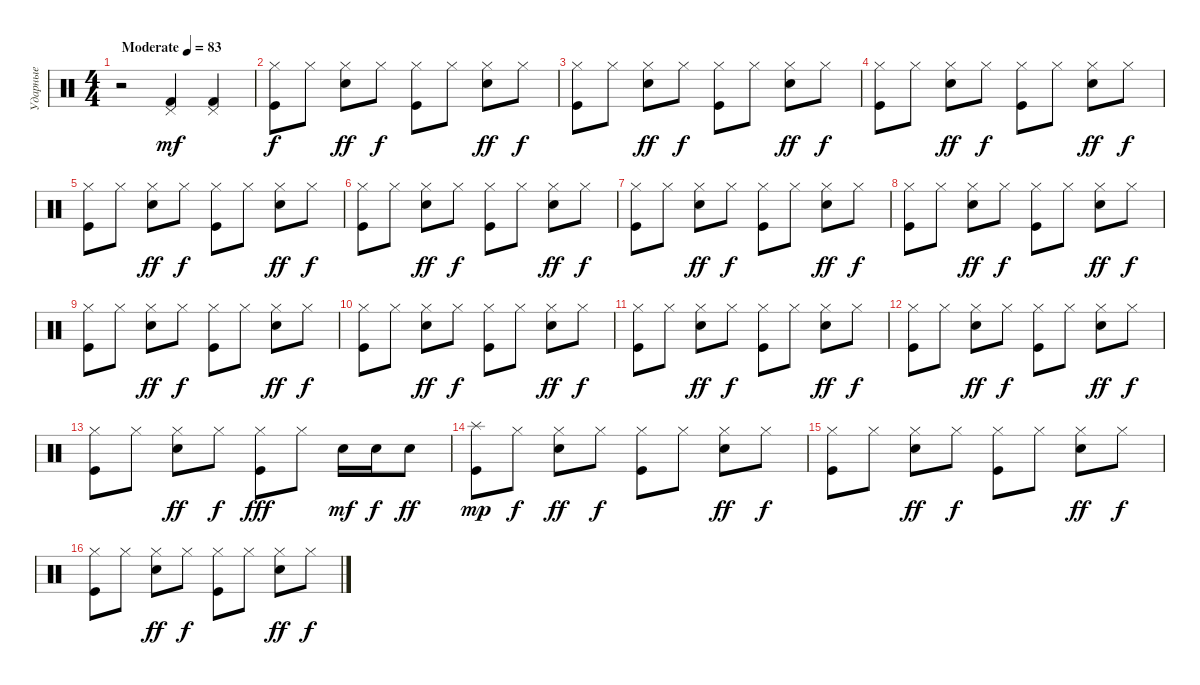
\track ("Ударные" "Ударные") {instrument percussion}
\staff {score}
\articulation defaults
\ts (4 4)
\tempo (83 "Moderate")
\clef neutral
\ks c
r.2{dy mf} ("Kick (hit) 2" "Pedal Hi-Hat (hit)").4 ("Kick (hit) 2" "Pedal Hi-Hat (hit)").4 |
("Hi-Hat (closed)" "Kick (hit)").8{dy f} "Hi-Hat (closed)".8 ("Hi-Hat (closed)" "Electric Snare (hit)").8{dy ff} "Hi-Hat (closed)".8{dy f} ("Hi-Hat (closed)" "Kick (hit)").8 "Hi-Hat (closed)".8 ("Hi-Hat (closed)" "Electric Snare (hit)").8{dy ff} "Hi-Hat (closed)".8{dy f} |
("Hi-Hat (closed)" "Kick (hit)").8 "Hi-Hat (closed)".8 ("Hi-Hat (closed)" "Electric Snare (hit)").8{dy ff} "Hi-Hat (closed)".8{dy f} ("Hi-Hat (closed)" "Kick (hit)").8 "Hi-Hat (closed)".8 ("Hi-Hat (closed)" "Electric Snare (hit)").8{dy ff} "Hi-Hat (closed)".8{dy f} |
("Hi-Hat (closed)" "Kick (hit)").8 "Hi-Hat (closed)".8 ("Hi-Hat (closed)" "Electric Snare (hit)").8{dy ff} "Hi-Hat (closed)".8{dy f} ("Hi-Hat (closed)" "Kick (hit)").8 "Hi-Hat (closed)".8 ("Hi-Hat (closed)" "Electric Snare (hit)").8{dy ff} "Hi-Hat (closed)".8{dy f} |
("Hi-Hat (closed)" "Kick (hit)").8 "Hi-Hat (closed)".8 ("Hi-Hat (closed)" "Electric Snare (hit)").8{dy ff} "Hi-Hat (closed)".8{dy f} ("Hi-Hat (closed)" "Kick (hit)").8 "Hi-Hat (closed)".8 ("Hi-Hat (closed)" "Electric Snare (hit)").8{dy ff} "Hi-Hat (closed)".8{dy f} |
("Hi-Hat (closed)" "Kick (hit)").8 "Hi-Hat (closed)".8 ("Hi-Hat (closed)" "Electric Snare (hit)").8{dy ff} "Hi-Hat (closed)".8{dy f} ("Hi-Hat (closed)" "Kick (hit)").8 "Hi-Hat (closed)".8 ("Hi-Hat (closed)" "Electric Snare (hit)").8{dy ff} "Hi-Hat (closed)".8{dy f} |
("Hi-Hat (closed)" "Kick (hit)").8 "Hi-Hat (closed)".8 ("Hi-Hat (closed)" "Electric Snare (hit)").8{dy ff} "Hi-Hat (closed)".8{dy f} ("Hi-Hat (closed)" "Kick (hit)").8 "Hi-Hat (closed)".8 ("Hi-Hat (closed)" "Electric Snare (hit)").8{dy ff} "Hi-Hat (closed)".8{dy f} |
("Hi-Hat (closed)" "Kick (hit)").8 "Hi-Hat (closed)".8 ("Hi-Hat (closed)" "Electric Snare (hit)").8{dy ff} "Hi-Hat (closed)".8{dy f} ("Hi-Hat (closed)" "Kick (hit)").8 "Hi-Hat (closed)".8 ("Hi-Hat (closed)" "Electric Snare (hit)").8{dy ff} "Hi-Hat (closed)".8{dy f} |
("Hi-Hat (closed)" "Kick (hit)").8 "Hi-Hat (closed)".8 ("Hi-Hat (closed)" "Electric Snare (hit)").8{dy ff} "Hi-Hat (closed)".8{dy f} ("Hi-Hat (closed)" "Kick (hit)").8 "Hi-Hat (closed)".8 ("Hi-Hat (closed)" "Electric Snare (hit)").8{dy ff} "Hi-Hat (closed)".8{dy f} |
("Hi-Hat (closed)" "Kick (hit)").8 "Hi-Hat (closed)".8 ("Hi-Hat (closed)" "Electric Snare (hit)").8{dy ff} "Hi-Hat (closed)".8{dy f} ("Hi-Hat (closed)" "Kick (hit)").8 "Hi-Hat (closed)".8 ("Hi-Hat (closed)" "Electric Snare (hit)").8{dy ff} "Hi-Hat (closed)".8{dy f} |
("Hi-Hat (closed)" "Kick (hit)").8 "Hi-Hat (closed)".8 ("Hi-Hat (closed)" "Electric Snare (hit)").8{dy ff} "Hi-Hat (closed)".8{dy f} ("Hi-Hat (closed)" "Kick (hit)").8 "Hi-Hat (closed)".8 ("Hi-Hat (closed)" "Electric Snare (hit)").8{dy ff} "Hi-Hat (closed)".8{dy f} |
("Hi-Hat (closed)" "Kick (hit)").8 "Hi-Hat (closed)".8 ("Hi-Hat (closed)" "Electric Snare (hit)").8{dy ff} "Hi-Hat (closed)".8{dy f} ("Hi-Hat (closed)" "Kick (hit)").8 "Hi-Hat (closed)".8 ("Hi-Hat (closed)" "Electric Snare (hit)").8{dy ff} "Hi-Hat (closed)".8{dy f} |
("Hi-Hat (closed)" "Kick (hit)").8 "Hi-Hat (closed)".8 ("Hi-Hat (closed)" "Electric Snare (hit)").8{dy ff} "Hi-Hat (closed)".8{dy f} ("Hi-Hat (closed)" "Kick (hit)").8{dy fff} "Hi-Hat (closed)".8 "Electric Snare (hit)".16{dy mf} "Electric Snare (hit)".16{dy f} "Electric Snare (hit)".8{dy ff} |
("Splash (hit)" "Kick (hit)").8{dy mp} "Hi-Hat (closed)".8{dy f} ("Hi-Hat (closed)" "Electric Snare (hit)").8{dy ff} "Hi-Hat (closed)".8{dy f} ("Hi-Hat (closed)" "Kick (hit)").8 "Hi-Hat (closed)".8 ("Hi-Hat (closed)" "Electric Snare (hit)").8{dy ff} "Hi-Hat (closed)".8{dy f} |
("Hi-Hat (closed)" "Kick (hit)").8 "Hi-Hat (closed)".8 ("Hi-Hat (closed)" "Electric Snare (hit)").8{dy ff} "Hi-Hat (closed)".8{dy f} ("Hi-Hat (closed)" "Kick (hit)").8 "Hi-Hat (closed)".8 ("Hi-Hat (closed)" "Electric Snare (hit)").8{dy ff} "Hi-Hat (closed)".8{dy f} |
("Hi-Hat (closed)" "Kick (hit)").8 "Hi-Hat (closed)".8 ("Hi-Hat (closed)" "Electric Snare (hit)").8{dy ff} "Hi-Hat (closed)".8{dy f} ("Hi-Hat (closed)" "Kick (hit)").8 "Hi-Hat (closed)".8 ("Hi-Hat (closed)" "Electric Snare (hit)").8{dy ff} "Hi-Hat (closed)".8{dy f}
